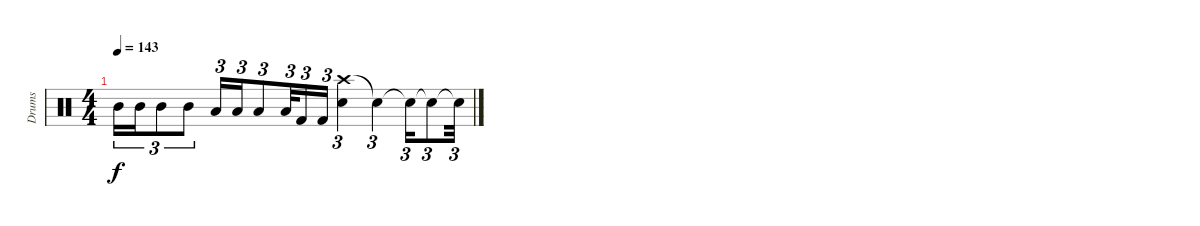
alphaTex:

\track ("Drums" "Drums") {instrument percussion}
\staff {score}
\articulation defaults
\ts (4 4)
\tempo 143
\clef neutral
\ks c "Mid Tom (hit)".16{tu (3 2) dy f} "Mid Tom (hit)".16{tu (3 2)} "Mid Tom (hit)".8{tu (3 2)} "Mid Tom (hit)".8{tu (3 2)} "Low Tom (hit)".16{tu (3 2)} "Low Tom (hit)".16{tu (3 2)} "Low Tom (hit)".8{tu (3 2)} "Low Tom (hit)".32{tu (3 2)} "Kick (hit) 2".16{tu (3 2)} "Kick (hit) 2".16{tu (3 2)}
("Crash high (hit)" "Snare (hit) 2").4{tu (3 2)} "Snare (hit)"{t}.4{tu (3 2)} "Snare (hit)"{t}.16{tu (3 2)} "Snare (hit)"{t}.8{tu (3 2)} "Snare (hit)"{t}.32{tu (3 2)}
